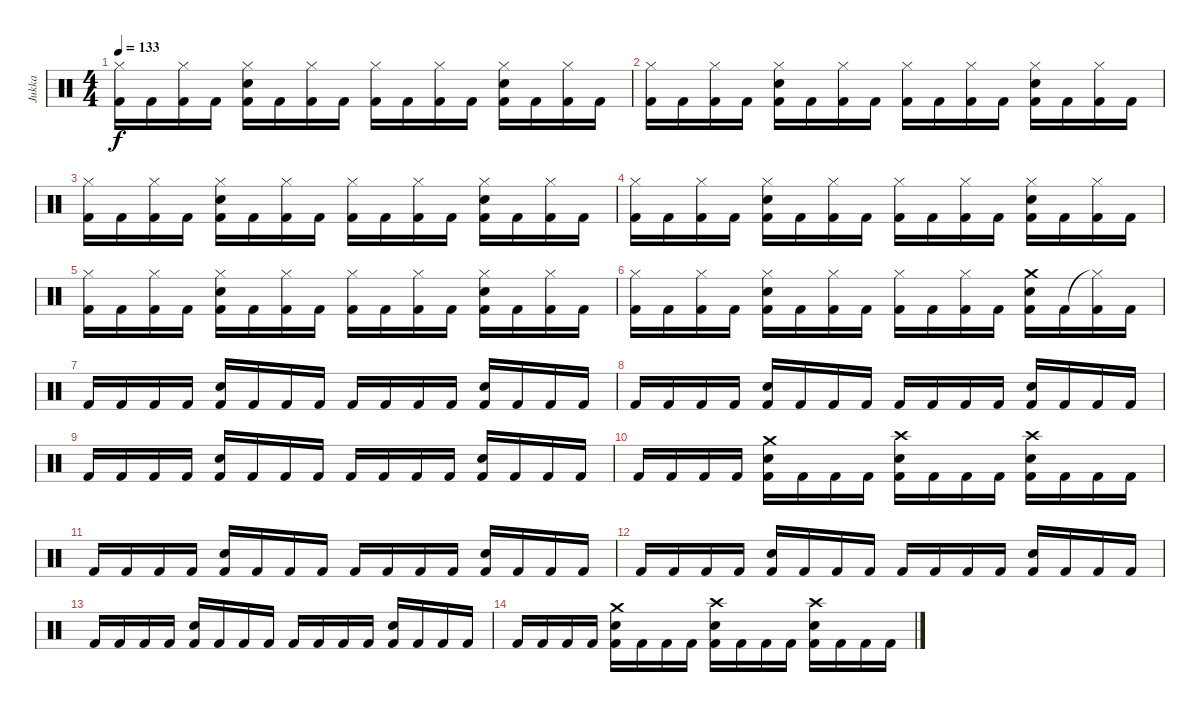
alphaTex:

\track ("Jukka" "Jukka") {instrument percussion}
\staff {score}
\articulation defaults
\ts (4 4)
\tempo 133
\clef neutral
\ks c
("Hi-Hat (closed)" "Kick (hit) 2").16{dy f} "Kick (hit) 2".16 ("Hi-Hat (closed)" "Kick (hit) 2").16 "Kick (hit) 2".16 ("Hi-Hat (closed)" "Electric Snare (hit)" "Kick (hit) 2").16 "Kick (hit) 2".16 ("Hi-Hat (closed)" "Kick (hit) 2").16 "Kick (hit) 2".16 ("Hi-Hat (closed)" "Kick (hit) 2").16 "Kick (hit) 2".16 ("Hi-Hat (closed)" "Kick (hit) 2").16 "Kick (hit) 2".16 ("Hi-Hat (closed)" "Electric Snare (hit)" "Kick (hit) 2").16 "Kick (hit) 2".16 ("Hi-Hat (closed)" "Kick (hit) 2").16 "Kick (hit) 2".16 |
("Hi-Hat (closed)" "Kick (hit) 2").16 "Kick (hit) 2".16 ("Hi-Hat (closed)" "Kick (hit) 2").16 "Kick (hit) 2".16 ("Hi-Hat (closed)" "Electric Snare (hit)" "Kick (hit) 2").16 "Kick (hit) 2".16 ("Hi-Hat (closed)" "Kick (hit) 2").16 "Kick (hit) 2".16 ("Hi-Hat (closed)" "Kick (hit) 2").16 "Kick (hit) 2".16 ("Hi-Hat (closed)" "Kick (hit) 2").16 "Kick (hit) 2".16 ("Hi-Hat (closed)" "Electric Snare (hit)" "Kick (hit) 2").16 "Kick (hit) 2".16 ("Hi-Hat (closed)" "Kick (hit) 2").16 "Kick (hit) 2".16 |
("Hi-Hat (closed)" "Kick (hit) 2").16 "Kick (hit) 2".16 ("Hi-Hat (closed)" "Kick (hit) 2").16 "Kick (hit) 2".16 ("Hi-Hat (closed)" "Electric Snare (hit)" "Kick (hit) 2").16 "Kick (hit) 2".16 ("Hi-Hat (closed)" "Kick (hit) 2").16 "Kick (hit) 2".16 ("Hi-Hat (closed)" "Kick (hit) 2").16 "Kick (hit) 2".16 ("Hi-Hat (closed)" "Kick (hit) 2").16 "Kick (hit) 2".16 ("Hi-Hat (closed)" "Electric Snare (hit)" "Kick (hit) 2").16 "Kick (hit) 2".16 ("Hi-Hat (closed)" "Kick (hit) 2").16 "Kick (hit) 2".16 |
("Hi-Hat (closed)" "Kick (hit) 2").16 "Kick (hit) 2".16 ("Hi-Hat (closed)" "Kick (hit) 2").16 "Kick (hit) 2".16 ("Hi-Hat (closed)" "Electric Snare (hit)" "Kick (hit) 2").16 "Kick (hit) 2".16 ("Hi-Hat (closed)" "Kick (hit) 2").16 "Kick (hit) 2".16 ("Hi-Hat (closed)" "Kick (hit) 2").16 "Kick (hit) 2".16 ("Hi-Hat (closed)" "Kick (hit) 2").16 "Kick (hit) 2".16 ("Hi-Hat (closed)" "Electric Snare (hit)" "Kick (hit) 2").16 "Kick (hit) 2".16 ("Hi-Hat (closed)" "Kick (hit) 2").16 "Kick (hit) 2".16 |
("Hi-Hat (closed)" "Kick (hit) 2").16 "Kick (hit) 2".16 ("Hi-Hat (closed)" "Kick (hit) 2").16 "Kick (hit) 2".16 ("Hi-Hat (closed)" "Electric Snare (hit)" "Kick (hit) 2").16 "Kick (hit) 2".16 ("Hi-Hat (closed)" "Kick (hit) 2").16 "Kick (hit) 2".16 ("Hi-Hat (closed)" "Kick (hit) 2").16 "Kick (hit) 2".16 ("Hi-Hat (closed)" "Kick (hit) 2").16 "Kick (hit) 2".16 ("Hi-Hat (closed)" "Electric Snare (hit)" "Kick (hit) 2").16 "Kick (hit) 2".16 ("Hi-Hat (closed)" "Kick (hit) 2").16 "Kick (hit) 2".16 |
("Hi-Hat (closed)" "Kick (hit) 2").16 "Kick (hit) 2".16 ("Hi-Hat (closed)" "Kick (hit) 2").16 "Kick (hit) 2".16 ("Hi-Hat (closed)" "Electric Snare (hit)" "Kick (hit) 2").16 "Kick (hit) 2".16 ("Hi-Hat (closed)" "Kick (hit) 2").16 "Kick (hit) 2".16 ("Hi-Hat (closed)" "Kick (hit) 2").16 "Kick (hit) 2".16 ("Hi-Hat (closed)" "Kick (hit) 2").16 "Kick (hit) 2".16 ("Crash medium (hit)" "Electric Snare (hit)" "Kick (hit) 2").16 "Kick (hit) 2".16 ("Hi-Hat (closed)"{t} "Kick (hit) 2").16 "Kick (hit) 2".16 |
"Kick (hit) 2".16 "Kick (hit) 2".16 "Kick (hit) 2".16 "Kick (hit) 2".16 ("Electric Snare (hit)" "Kick (hit) 2").16 "Kick (hit) 2".16 "Kick (hit) 2".16 "Kick (hit) 2".16 "Kick (hit) 2".16 "Kick (hit) 2".16 "Kick (hit) 2".16 "Kick (hit) 2".16 ("Electric Snare (hit)" "Kick (hit) 2").16 "Kick (hit) 2".16 "Kick (hit) 2".16 "Kick (hit) 2".16 |
"Kick (hit) 2".16 "Kick (hit) 2".16 "Kick (hit) 2".16 "Kick (hit) 2".16 ("Electric Snare (hit)" "Kick (hit) 2").16 "Kick (hit) 2".16 "Kick (hit) 2".16 "Kick (hit) 2".16 "Kick (hit) 2".16 "Kick (hit) 2".16 "Kick (hit) 2".16 "Kick (hit) 2".16 ("Electric Snare (hit)" "Kick (hit) 2").16 "Kick (hit) 2".16 "Kick (hit) 2".16 "Kick (hit) 2".16 |
"Kick (hit) 2".16 "Kick (hit) 2".16 "Kick (hit) 2".16 "Kick (hit) 2".16 ("Electric Snare (hit)" "Kick (hit) 2").16 "Kick (hit) 2".16 "Kick (hit) 2".16 "Kick (hit) 2".16 "Kick (hit) 2".16 "Kick (hit) 2".16 "Kick (hit) 2".16 "Kick (hit) 2".16 ("Electric Snare (hit)" "Kick (hit) 2").16 "Kick (hit) 2".16 "Kick (hit) 2".16 "Kick (hit) 2".16 |
"Kick (hit) 2".16 "Kick (hit) 2".16 "Kick (hit) 2".16 "Kick (hit) 2".16 ("Crash medium (hit)" "Electric Snare (hit)" "Kick (hit) 2").16 "Kick (hit) 2".16 "Kick (hit) 2".16 "Kick (hit) 2".16 ("Crash high (hit)" "Electric Snare (hit)" "Kick (hit) 2").16 "Kick (hit) 2".16 "Kick (hit) 2".16 "Kick (hit) 2".16 ("Crash high (hit)" "Electric Snare (hit)" "Kick (hit) 2").16 "Kick (hit) 2".16 "Kick (hit) 2".16 "Kick (hit) 2".16 |
"Kick (hit) 2".16 "Kick (hit) 2".16 "Kick (hit) 2".16 "Kick (hit) 2".16 ("Electric Snare (hit)" "Kick (hit) 2").16 "Kick (hit) 2".16 "Kick (hit) 2".16 "Kick (hit) 2".16 "Kick (hit) 2".16 "Kick (hit) 2".16 "Kick (hit) 2".16 "Kick (hit) 2".16 ("Electric Snare (hit)" "Kick (hit) 2").16 "Kick (hit) 2".16 "Kick (hit) 2".16 "Kick (hit) 2".16 |
"Kick (hit) 2".16 "Kick (hit) 2".16 "Kick (hit) 2".16 "Kick (hit) 2".16 ("Electric Snare (hit)" "Kick (hit) 2").16 "Kick (hit) 2".16 "Kick (hit) 2".16 "Kick (hit) 2".16 "Kick (hit) 2".16 "Kick (hit) 2".16 "Kick (hit) 2".16 "Kick (hit) 2".16 ("Electric Snare (hit)" "Kick (hit) 2").16 "Kick (hit) 2".16 "Kick (hit) 2".16 "Kick (hit) 2".16 |
"Kick (hit) 2".16 "Kick (hit) 2".16 "Kick (hit) 2".16 "Kick (hit) 2".16 ("Electric Snare (hit)" "Kick (hit) 2").16 "Kick (hit) 2".16 "Kick (hit) 2".16 "Kick (hit) 2".16 "Kick (hit) 2".16 "Kick (hit) 2".16 "Kick (hit) 2".16 "Kick (hit) 2".16 ("Electric Snare (hit)" "Kick (hit) 2").16 "Kick (hit) 2".16 "Kick (hit) 2".16 "Kick (hit) 2".16 |
"Kick (hit) 2".16 "Kick (hit) 2".16 "Kick (hit) 2".16 "Kick (hit) 2".16 ("Crash medium (hit)" "Electric Snare (hit)" "Kick (hit) 2").16 "Kick (hit) 2".16 "Kick (hit) 2".16 "Kick (hit) 2".16 ("Crash high (hit)" "Electric Snare (hit)" "Kick (hit) 2").16 "Kick (hit) 2".16 "Kick (hit) 2".16 "Kick (hit) 2".16 ("Crash high (hit)" "Electric Snare (hit)" "Kick (hit) 2").16 "Kick (hit) 2".16 "Kick (hit) 2".16 "Kick (hit) 2".16
